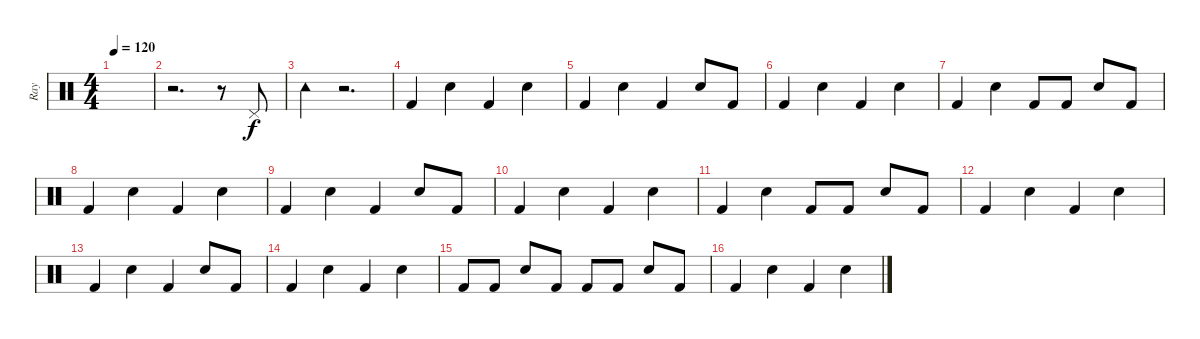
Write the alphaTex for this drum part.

\track ("Ray" "Ray") {instrument percussion}
\staff {score}
\articulation defaults
\ts (4 4)
\tempo 120
\clef neutral
\ks c
|
r.2{d} r.8 "Pedal Hi-Hat (hit)".8 |
"Tambourine (hit)".4{dy f} r.2{d} |
"Kick (hit) 2".4 "Snare (hit) 2".4 "Kick (hit) 2".4 "Snare (hit) 2".4 |
"Kick (hit) 2".4 "Snare (hit) 2".4 "Kick (hit) 2".4 "Snare (hit) 2".8 "Kick (hit) 2".8 |
"Kick (hit) 2".4 "Snare (hit) 2".4 "Kick (hit) 2".4 "Snare (hit) 2".4 |
"Kick (hit) 2".4 "Snare (hit) 2".4 "Kick (hit) 2".8 "Kick (hit) 2".8 "Snare (hit) 2".8 "Kick (hit) 2".8 |
"Kick (hit) 2".4 "Snare (hit) 2".4 "Kick (hit) 2".4 "Snare (hit) 2".4 |
"Kick (hit) 2".4 "Snare (hit) 2".4 "Kick (hit) 2".4 "Snare (hit) 2".8 "Kick (hit) 2".8 |
"Kick (hit) 2".4 "Snare (hit) 2".4 "Kick (hit) 2".4 "Snare (hit) 2".4 |
"Kick (hit) 2".4 "Snare (hit) 2".4 "Kick (hit) 2".8 "Kick (hit) 2".8 "Snare (hit) 2".8 "Kick (hit) 2".8 |
"Kick (hit) 2".4 "Snare (hit) 2".4 "Kick (hit) 2".4 "Snare (hit) 2".4 |
"Kick (hit) 2".4 "Snare (hit) 2".4 "Kick (hit) 2".4 "Snare (hit) 2".8 "Kick (hit) 2".8 |
"Kick (hit) 2".4 "Snare (hit) 2".4 "Kick (hit) 2".4 "Snare (hit) 2".4 |
"Kick (hit) 2".8 "Kick (hit) 2".8 "Snare (hit) 2".8 "Kick (hit) 2".8 "Kick (hit) 2".8 "Kick (hit) 2".8 "Snare (hit) 2".8 "Kick (hit) 2".8 |
"Kick (hit) 2".4 "Snare (hit) 2".4 "Kick (hit) 2".4 "Snare (hit) 2".4
